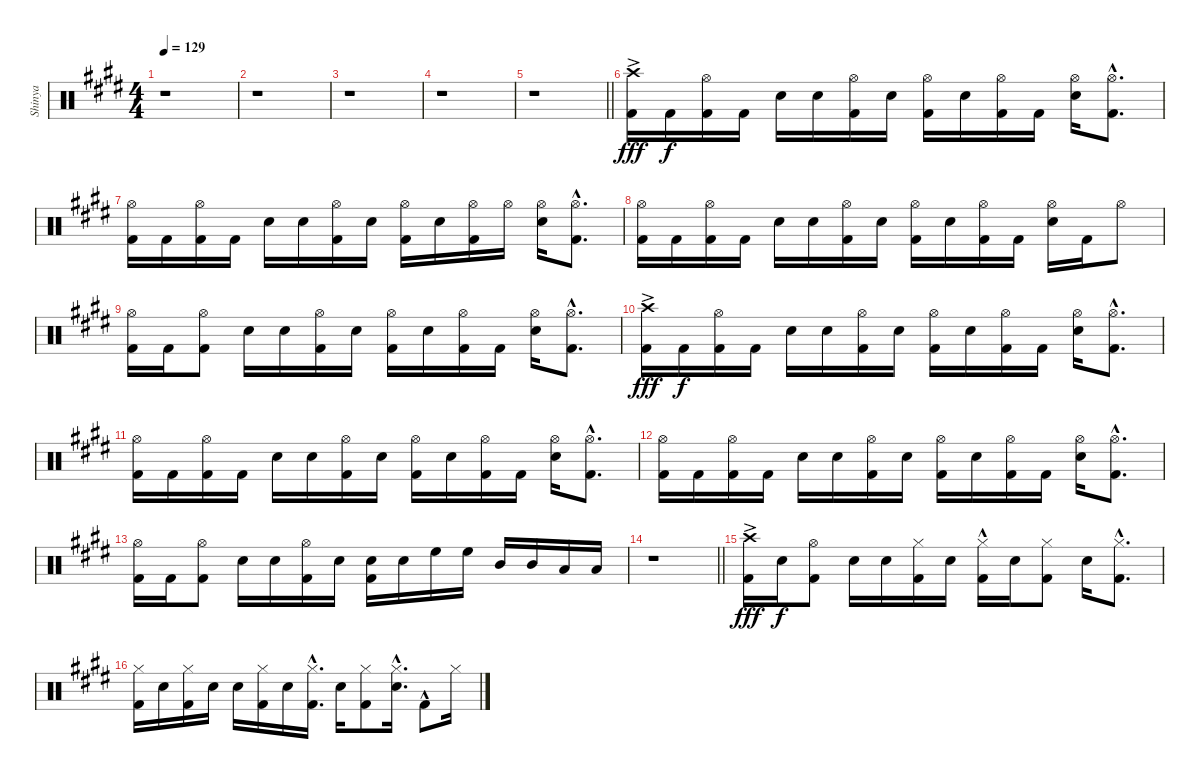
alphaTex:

\track ("Shinya" "Shinya") {instrument percussion}
\staff {score}
\articulation defaults
\ts (4 4)
\tempo 129
\clef neutral
\ks e
r.1{dy fff} |
r.1 |
r.1 |
r.1 |
\barLineRight lightlight
r.1 |
("Crash high (hit)"{ac} "Kick (hit) 2").16 "Kick (hit) 2".16{dy f} ("Hi-Hat (open)" "Kick (hit) 2").16 "Kick (hit) 2".16 "Snare (hit) 2".16 "Snare (hit) 2".16 ("Hi-Hat (open)" "Kick (hit) 2").16 "Snare (hit) 2".16 ("Hi-Hat (open)" "Kick (hit) 2").16 "Snare (hit) 2".16 ("Hi-Hat (open)" "Kick (hit) 2").16 "Kick (hit) 2".16 ("Hi-Hat (open)" "Snare (hit) 2").16 ("Hi-Hat (open)"{hac} "Kick (hit) 2"{hac}).8{d} |
("Hi-Hat (open)" "Kick (hit) 2").16 "Kick (hit) 2".16 ("Hi-Hat (open)" "Kick (hit) 2").16 "Kick (hit) 2".16 "Snare (hit) 2".16 "Snare (hit) 2".16 ("Hi-Hat (open)" "Kick (hit) 2").16 "Snare (hit) 2".16 ("Hi-Hat (open)" "Kick (hit) 2").16 "Snare (hit) 2".16 ("Hi-Hat (open)" "Kick (hit) 2").16 "Hi-Hat (open)".16 ("Hi-Hat (open)" "Snare (hit) 2").16 ("Hi-Hat (open)"{hac} "Kick (hit) 2"{hac}).8{d} |
("Hi-Hat (open)" "Kick (hit) 2").16 "Kick (hit) 2".16 ("Hi-Hat (open)" "Kick (hit) 2").16 "Kick (hit) 2".16 "Snare (hit) 2".16 "Snare (hit) 2".16 ("Hi-Hat (open)" "Kick (hit) 2").16 "Snare (hit) 2".16 ("Hi-Hat (open)" "Kick (hit) 2").16 "Snare (hit) 2".16 ("Hi-Hat (open)" "Kick (hit) 2").16 "Kick (hit) 2".16 ("Hi-Hat (open)" "Snare (hit) 2").16 "Kick (hit) 2".16 "Hi-Hat (open)".8 |
("Hi-Hat (open)" "Kick (hit) 2").16 "Kick (hit) 2".16 ("Hi-Hat (open)" "Kick (hit) 2").8 "Snare (hit) 2".16 "Snare (hit) 2".16 ("Hi-Hat (open)" "Kick (hit) 2").16 "Snare (hit) 2".16 ("Hi-Hat (open)" "Kick (hit) 2").16 "Snare (hit) 2".16 ("Hi-Hat (open)" "Kick (hit) 2").16 "Kick (hit) 2".16 ("Hi-Hat (open)" "Snare (hit) 2").16 ("Hi-Hat (open)"{hac} "Kick (hit) 2"{hac}).8{d} |
("Crash high (hit)"{ac} "Kick (hit) 2").16{dy fff} "Kick (hit) 2".16{dy f} ("Hi-Hat (open)" "Kick (hit) 2").16 "Kick (hit) 2".16 "Snare (hit) 2".16 "Snare (hit) 2".16 ("Hi-Hat (open)" "Kick (hit) 2").16 "Snare (hit) 2".16 ("Hi-Hat (open)" "Kick (hit) 2").16 "Snare (hit) 2".16 ("Hi-Hat (open)" "Kick (hit) 2").16 "Kick (hit) 2".16 ("Hi-Hat (open)" "Snare (hit) 2").16 ("Hi-Hat (open)"{hac} "Kick (hit) 2"{hac}).8{d} |
("Hi-Hat (open)" "Kick (hit) 2").16 "Kick (hit) 2".16 ("Hi-Hat (open)" "Kick (hit) 2").16 "Kick (hit) 2".16 "Snare (hit) 2".16 "Snare (hit) 2".16 ("Hi-Hat (open)" "Kick (hit) 2").16 "Snare (hit) 2".16 ("Hi-Hat (open)" "Kick (hit) 2").16 "Snare (hit) 2".16 ("Hi-Hat (open)" "Kick (hit) 2").16 "Kick (hit) 2".16 ("Hi-Hat (open)" "Snare (hit) 2").16 ("Hi-Hat (open)"{hac} "Kick (hit) 2"{hac}).8{d} |
("Hi-Hat (open)" "Kick (hit) 2").16 "Kick (hit) 2".16 ("Hi-Hat (open)" "Kick (hit) 2").16 "Kick (hit) 2".16 "Snare (hit) 2".16 "Snare (hit) 2".16 ("Hi-Hat (open)" "Kick (hit) 2").16 "Snare (hit) 2".16 ("Hi-Hat (open)" "Kick (hit) 2").16 "Snare (hit) 2".16 ("Hi-Hat (open)" "Kick (hit) 2").16 "Kick (hit) 2".16 ("Hi-Hat (open)" "Snare (hit) 2").16 ("Hi-Hat (open)"{hac} "Kick (hit) 2"{hac}).8{d} |
("Hi-Hat (open)" "Kick (hit) 2").16 "Kick (hit) 2".16 ("Hi-Hat (open)" "Kick (hit) 2").8 "Snare (hit) 2".16 "Snare (hit) 2".16 ("Hi-Hat (open)" "Kick (hit) 2").16 "Snare (hit) 2".16 ("Snare (hit) 2" "Kick (hit) 2").16 "Snare (hit) 2".16 "High Floor Tom (hit)".16 "High Floor Tom (hit)".16 "Mid Tom (hit)".16 "Mid Tom (hit)".16 "Low Tom (hit)".16 "Low Tom (hit)".16 |
\barLineRight lightlight
r.1 |
("Crash high (hit)"{ac} "Kick (hit) 2").16{dy fff} "Snare (hit) 2".16{dy f} ("Hi-Hat (open)" "Kick (hit) 2").8 "Snare (hit) 2".16 "Snare (hit) 2".16 ("Hi-Hat (closed)" "Kick (hit) 2").16 "Snare (hit) 2".16 ("Hi-Hat (closed)" "Kick (hit) 2"{hac}).16 "Snare (hit) 2".16 ("Hi-Hat (closed)" "Kick (hit) 2").8 "Snare (hit) 2".16 ("Hi-Hat (closed)"{hac} "Kick (hit) 2"{hac}).8{d} |
("Hi-Hat (closed)" "Kick (hit) 2").16 "Snare (hit) 2".16 ("Hi-Hat (closed)" "Kick (hit) 2").16 "Snare (hit) 2".16 "Snare (hit) 2".16 ("Hi-Hat (closed)" "Kick (hit) 2").16 "Snare (hit) 2".16 ("Hi-Hat (closed)"{hac} "Kick (hit) 2"{hac}).16{d} "Snare (hit) 2".16 ("Hi-Hat (closed)" "Kick (hit) 2").8 ("Hi-Hat (closed)"{hac} "Snare (hit) 2"{hac}).16{d} "Kick (hit) 2"{hac}.8 "Hi-Hat (closed)".16
